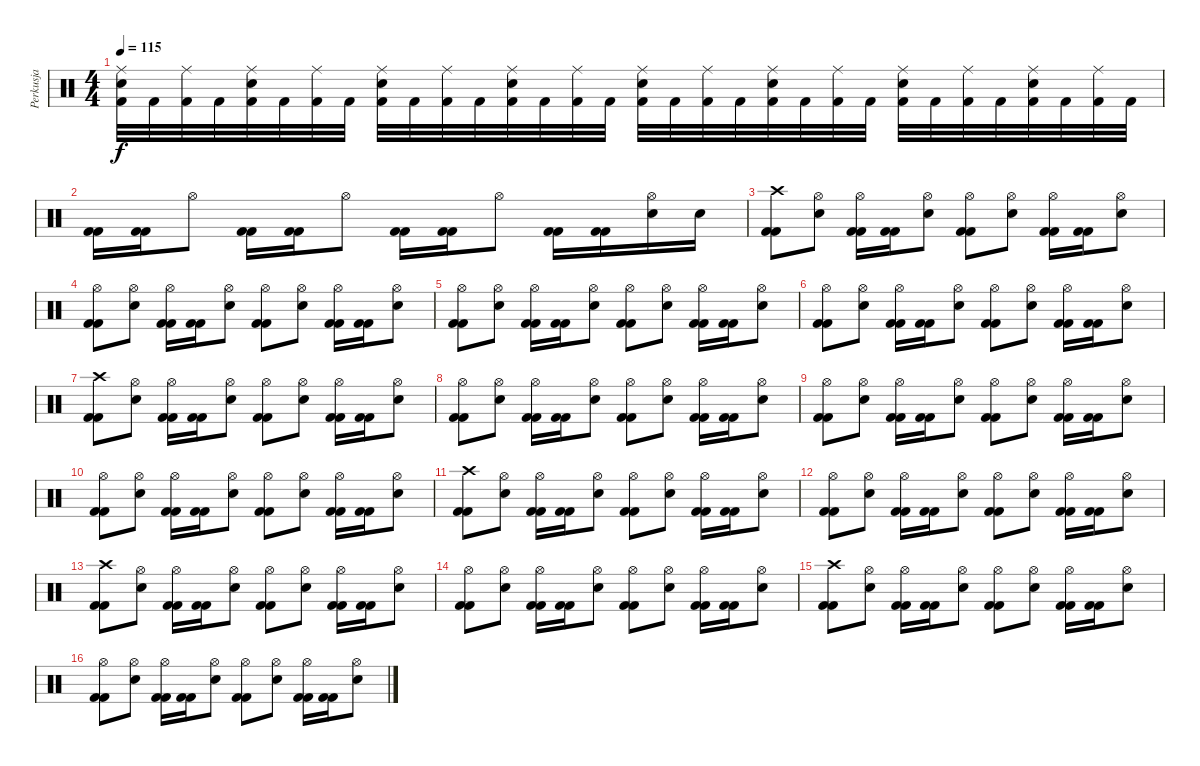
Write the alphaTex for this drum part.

\track ("Perkusja" "Perkusja") {instrument percussion}
\staff {score}
\articulation defaults
\ts (4 4)
\tempo 115
\clef neutral
\ks c
("Ride (middle)" "Electric Snare (hit)" "Kick (hit) 2").32{dy f} "Kick (hit) 2".32 ("Ride (middle)" "Kick (hit) 2").32 "Kick (hit) 2".32 ("Ride (middle)" "Electric Snare (hit)" "Kick (hit) 2").32 "Kick (hit) 2".32 ("Ride (middle)" "Kick (hit) 2").32 "Kick (hit) 2".32 ("Ride (middle)" "Electric Snare (hit)" "Kick (hit) 2").32 "Kick (hit) 2".32 ("Ride (middle)" "Kick (hit) 2").32 "Kick (hit) 2".32 ("Ride (middle)" "Electric Snare (hit)" "Kick (hit) 2").32 "Kick (hit) 2".32 ("Ride (middle)" "Kick (hit) 2").32 "Kick (hit) 2".32 ("Ride (middle)" "Electric Snare (hit)" "Kick (hit) 2").32 "Kick (hit) 2".32 ("Ride (middle)" "Kick (hit) 2").32 "Kick (hit) 2".32 ("Ride (middle)" "Electric Snare (hit)" "Kick (hit) 2").32 "Kick (hit) 2".32 ("Ride (middle)" "Kick (hit) 2").32 "Kick (hit) 2".32 ("Ride (middle)" "Electric Snare (hit)" "Kick (hit) 2").32 "Kick (hit) 2".32 ("Ride (middle)" "Kick (hit) 2").32 "Kick (hit) 2".32 ("Ride (middle)" "Electric Snare (hit)" "Kick (hit) 2").32 "Kick (hit) 2".32 ("Ride (middle)" "Kick (hit) 2").32 "Kick (hit) 2".32 |
("Kick (hit) 2" "Kick (hit) 2").16 ("Kick (hit) 2" "Kick (hit) 2").16 "Hi-Hat (open)".8 ("Kick (hit) 2" "Kick (hit) 2").16 ("Kick (hit) 2" "Kick (hit) 2").16 "Hi-Hat (open)".8 ("Kick (hit) 2" "Kick (hit) 2").16 ("Kick (hit) 2" "Kick (hit) 2").16 "Hi-Hat (open)".8 ("Kick (hit) 2" "Kick (hit) 2").16 ("Kick (hit) 2" "Kick (hit) 2").16 ("Hi-Hat (open)" "Electric Snare (hit)").16 "Electric Snare (hit)".16 |
("Crash high (hit)" "Kick (hit) 2" "Kick (hit) 2").8 ("Hi-Hat (open)" "Electric Snare (hit)").8 ("Hi-Hat (open)" "Kick (hit) 2" "Kick (hit) 2").16 ("Kick (hit) 2" "Kick (hit) 2").16 ("Hi-Hat (open)" "Electric Snare (hit)").8 ("Hi-Hat (open)" "Kick (hit) 2" "Kick (hit) 2").8 ("Hi-Hat (open)" "Electric Snare (hit)").8 ("Hi-Hat (open)" "Kick (hit) 2" "Kick (hit) 2").16 ("Kick (hit) 2" "Kick (hit) 2").16 ("Hi-Hat (open)" "Electric Snare (hit)").8 |
("Hi-Hat (open)" "Kick (hit) 2" "Kick (hit) 2").8 ("Hi-Hat (open)" "Electric Snare (hit)").8 ("Hi-Hat (open)" "Kick (hit) 2" "Kick (hit) 2").16 ("Kick (hit) 2" "Kick (hit) 2").16 ("Hi-Hat (open)" "Electric Snare (hit)").8 ("Hi-Hat (open)" "Kick (hit) 2" "Kick (hit) 2").8 ("Hi-Hat (open)" "Electric Snare (hit)").8 ("Hi-Hat (open)" "Kick (hit) 2" "Kick (hit) 2").16 ("Kick (hit) 2" "Kick (hit) 2").16 ("Hi-Hat (open)" "Electric Snare (hit)").8 |
("Hi-Hat (open)" "Kick (hit) 2" "Kick (hit) 2").8 ("Hi-Hat (open)" "Electric Snare (hit)").8 ("Hi-Hat (open)" "Kick (hit) 2" "Kick (hit) 2").16 ("Kick (hit) 2" "Kick (hit) 2").16 ("Hi-Hat (open)" "Electric Snare (hit)").8 ("Hi-Hat (open)" "Kick (hit) 2" "Kick (hit) 2").8 ("Hi-Hat (open)" "Electric Snare (hit)").8 ("Hi-Hat (open)" "Kick (hit) 2" "Kick (hit) 2").16 ("Kick (hit) 2" "Kick (hit) 2").16 ("Hi-Hat (open)" "Electric Snare (hit)").8 |
("Hi-Hat (open)" "Kick (hit) 2" "Kick (hit) 2").8 ("Hi-Hat (open)" "Electric Snare (hit)").8 ("Hi-Hat (open)" "Kick (hit) 2" "Kick (hit) 2").16 ("Kick (hit) 2" "Kick (hit) 2").16 ("Hi-Hat (open)" "Electric Snare (hit)").8 ("Hi-Hat (open)" "Kick (hit) 2" "Kick (hit) 2").8 ("Hi-Hat (open)" "Electric Snare (hit)").8 ("Hi-Hat (open)" "Kick (hit) 2" "Kick (hit) 2").16 ("Kick (hit) 2" "Kick (hit) 2").16 ("Hi-Hat (open)" "Electric Snare (hit)").8 |
("Crash high (hit)" "Kick (hit) 2" "Kick (hit) 2").8 ("Hi-Hat (open)" "Electric Snare (hit)").8 ("Hi-Hat (open)" "Kick (hit) 2" "Kick (hit) 2").16 ("Kick (hit) 2" "Kick (hit) 2").16 ("Hi-Hat (open)" "Electric Snare (hit)").8 ("Hi-Hat (open)" "Kick (hit) 2" "Kick (hit) 2").8 ("Hi-Hat (open)" "Electric Snare (hit)").8 ("Hi-Hat (open)" "Kick (hit) 2" "Kick (hit) 2").16 ("Kick (hit) 2" "Kick (hit) 2").16 ("Hi-Hat (open)" "Electric Snare (hit)").8 |
("Hi-Hat (open)" "Kick (hit) 2" "Kick (hit) 2").8 ("Hi-Hat (open)" "Electric Snare (hit)").8 ("Hi-Hat (open)" "Kick (hit) 2" "Kick (hit) 2").16 ("Kick (hit) 2" "Kick (hit) 2").16 ("Hi-Hat (open)" "Electric Snare (hit)").8 ("Hi-Hat (open)" "Kick (hit) 2" "Kick (hit) 2").8 ("Hi-Hat (open)" "Electric Snare (hit)").8 ("Hi-Hat (open)" "Kick (hit) 2" "Kick (hit) 2").16 ("Kick (hit) 2" "Kick (hit) 2").16 ("Hi-Hat (open)" "Electric Snare (hit)").8 |
("Hi-Hat (open)" "Kick (hit) 2" "Kick (hit) 2").8 ("Hi-Hat (open)" "Electric Snare (hit)").8 ("Hi-Hat (open)" "Kick (hit) 2" "Kick (hit) 2").16 ("Kick (hit) 2" "Kick (hit) 2").16 ("Hi-Hat (open)" "Electric Snare (hit)").8 ("Hi-Hat (open)" "Kick (hit) 2" "Kick (hit) 2").8 ("Hi-Hat (open)" "Electric Snare (hit)").8 ("Hi-Hat (open)" "Kick (hit) 2" "Kick (hit) 2").16 ("Kick (hit) 2" "Kick (hit) 2").16 ("Hi-Hat (open)" "Electric Snare (hit)").8 |
("Hi-Hat (open)" "Kick (hit) 2" "Kick (hit) 2").8 ("Hi-Hat (open)" "Electric Snare (hit)").8 ("Hi-Hat (open)" "Kick (hit) 2" "Kick (hit) 2").16 ("Kick (hit) 2" "Kick (hit) 2").16 ("Hi-Hat (open)" "Electric Snare (hit)").8 ("Hi-Hat (open)" "Kick (hit) 2" "Kick (hit) 2").8 ("Hi-Hat (open)" "Electric Snare (hit)").8 ("Hi-Hat (open)" "Kick (hit) 2" "Kick (hit) 2").16 ("Kick (hit) 2" "Kick (hit) 2").16 ("Hi-Hat (open)" "Electric Snare (hit)").8 |
("Crash high (hit)" "Kick (hit) 2" "Kick (hit) 2").8 ("Hi-Hat (open)" "Electric Snare (hit)").8 ("Hi-Hat (open)" "Kick (hit) 2" "Kick (hit) 2").16 ("Kick (hit) 2" "Kick (hit) 2").16 ("Hi-Hat (open)" "Electric Snare (hit)").8 ("Hi-Hat (open)" "Kick (hit) 2" "Kick (hit) 2").8 ("Hi-Hat (open)" "Electric Snare (hit)").8 ("Hi-Hat (open)" "Kick (hit) 2" "Kick (hit) 2").16 ("Kick (hit) 2" "Kick (hit) 2").16 ("Hi-Hat (open)" "Electric Snare (hit)").8 |
("Hi-Hat (open)" "Kick (hit) 2" "Kick (hit) 2").8 ("Hi-Hat (open)" "Electric Snare (hit)").8 ("Hi-Hat (open)" "Kick (hit) 2" "Kick (hit) 2").16 ("Kick (hit) 2" "Kick (hit) 2").16 ("Hi-Hat (open)" "Electric Snare (hit)").8 ("Hi-Hat (open)" "Kick (hit) 2" "Kick (hit) 2").8 ("Hi-Hat (open)" "Electric Snare (hit)").8 ("Hi-Hat (open)" "Kick (hit) 2" "Kick (hit) 2").16 ("Kick (hit) 2" "Kick (hit) 2").16 ("Hi-Hat (open)" "Electric Snare (hit)").8 |
("Crash high (hit)" "Kick (hit) 2" "Kick (hit) 2").8 ("Hi-Hat (open)" "Electric Snare (hit)").8 ("Hi-Hat (open)" "Kick (hit) 2" "Kick (hit) 2").16 ("Kick (hit) 2" "Kick (hit) 2").16 ("Hi-Hat (open)" "Electric Snare (hit)").8 ("Hi-Hat (open)" "Kick (hit) 2" "Kick (hit) 2").8 ("Hi-Hat (open)" "Electric Snare (hit)").8 ("Hi-Hat (open)" "Kick (hit) 2" "Kick (hit) 2").16 ("Kick (hit) 2" "Kick (hit) 2").16 ("Hi-Hat (open)" "Electric Snare (hit)").8 |
("Hi-Hat (open)" "Kick (hit) 2" "Kick (hit) 2").8 ("Hi-Hat (open)" "Electric Snare (hit)").8 ("Hi-Hat (open)" "Kick (hit) 2" "Kick (hit) 2").16 ("Kick (hit) 2" "Kick (hit) 2").16 ("Hi-Hat (open)" "Electric Snare (hit)").8 ("Hi-Hat (open)" "Kick (hit) 2" "Kick (hit) 2").8 ("Hi-Hat (open)" "Electric Snare (hit)").8 ("Hi-Hat (open)" "Kick (hit) 2" "Kick (hit) 2").16 ("Kick (hit) 2" "Kick (hit) 2").16 ("Hi-Hat (open)" "Electric Snare (hit)").8 |
("Crash high (hit)" "Kick (hit) 2" "Kick (hit) 2").8 ("Hi-Hat (open)" "Electric Snare (hit)").8 ("Hi-Hat (open)" "Kick (hit) 2" "Kick (hit) 2").16 ("Kick (hit) 2" "Kick (hit) 2").16 ("Hi-Hat (open)" "Electric Snare (hit)").8 ("Hi-Hat (open)" "Kick (hit) 2" "Kick (hit) 2").8 ("Hi-Hat (open)" "Electric Snare (hit)").8 ("Hi-Hat (open)" "Kick (hit) 2" "Kick (hit) 2").16 ("Kick (hit) 2" "Kick (hit) 2").16 ("Hi-Hat (open)" "Electric Snare (hit)").8 |
("Hi-Hat (open)" "Kick (hit) 2" "Kick (hit) 2").8 ("Hi-Hat (open)" "Electric Snare (hit)").8 ("Hi-Hat (open)" "Kick (hit) 2" "Kick (hit) 2").16 ("Kick (hit) 2" "Kick (hit) 2").16 ("Hi-Hat (open)" "Electric Snare (hit)").8 ("Hi-Hat (open)" "Kick (hit) 2" "Kick (hit) 2").8 ("Hi-Hat (open)" "Electric Snare (hit)").8 ("Hi-Hat (open)" "Kick (hit) 2" "Kick (hit) 2").16 ("Kick (hit) 2" "Kick (hit) 2").16 ("Hi-Hat (open)" "Electric Snare (hit)").8
